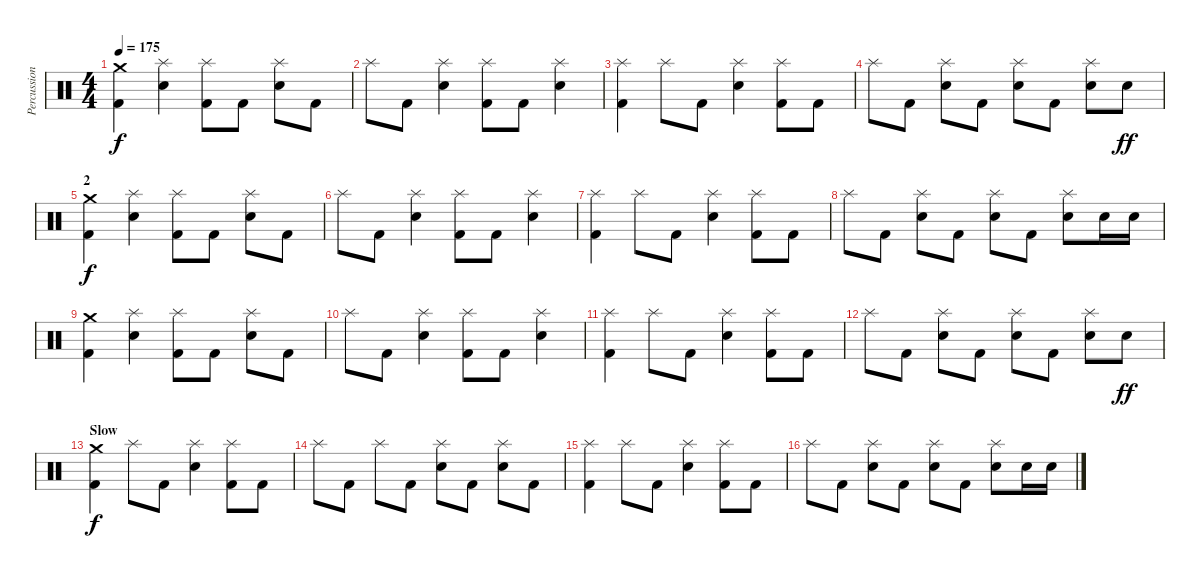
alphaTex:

\track ("Percussion" "Percussion") {instrument percussion}
\staff {score}
\articulation defaults
\ts (4 4)
\tempo 175
\clef neutral
\ks c
("Crash medium (hit)" "Kick (hit) 2").4{dy f} ("Splash (hit)" "Electric Snare (hit)").4 ("Splash (hit)" "Kick (hit) 2").8 "Kick (hit) 2".8 ("Splash (hit)" "Electric Snare (hit)").8 "Kick (hit) 2".8 |
"Splash (hit)".8 "Kick (hit) 2".8 ("Splash (hit)" "Electric Snare (hit)").4 ("Splash (hit)" "Kick (hit) 2").8 "Kick (hit) 2".8 ("Splash (hit)" "Electric Snare (hit)").4 |
("Splash (hit)" "Kick (hit) 2").4 "Splash (hit)".8 "Kick (hit) 2".8 ("Splash (hit)" "Electric Snare (hit)").4 ("Splash (hit)" "Kick (hit) 2").8 "Kick (hit) 2".8 |
"Splash (hit)".8 "Kick (hit) 2".8 ("Splash (hit)" "Electric Snare (hit)").8 "Kick (hit) 2".8 ("Splash (hit)" "Electric Snare (hit)").8 "Kick (hit) 2".8 ("Splash (hit)" "Electric Snare (hit)").8 "Electric Snare (hit)".8{dy ff} |
\section ("" "2")
("Crash medium (hit)" "Kick (hit) 2").4{dy f} ("Splash (hit)" "Electric Snare (hit)").4 ("Splash (hit)" "Kick (hit) 2").8 "Kick (hit) 2".8 ("Splash (hit)" "Electric Snare (hit)").8 "Kick (hit) 2".8 |
"Splash (hit)".8 "Kick (hit) 2".8 ("Splash (hit)" "Electric Snare (hit)").4 ("Splash (hit)" "Kick (hit) 2").8 "Kick (hit) 2".8 ("Splash (hit)" "Electric Snare (hit)").4 |
("Splash (hit)" "Kick (hit) 2").4 "Splash (hit)".8 "Kick (hit) 2".8 ("Splash (hit)" "Electric Snare (hit)").4 ("Splash (hit)" "Kick (hit) 2").8 "Kick (hit) 2".8 |
"Splash (hit)".8 "Kick (hit) 2".8 ("Splash (hit)" "Electric Snare (hit)").8 "Kick (hit) 2".8 ("Splash (hit)" "Electric Snare (hit)").8 "Kick (hit) 2".8 ("Splash (hit)" "Electric Snare (hit)").8 "Electric Snare (hit)".16 "Electric Snare (hit)".16 |
("Crash medium (hit)" "Kick (hit) 2").4 ("Splash (hit)" "Electric Snare (hit)").4 ("Splash (hit)" "Kick (hit) 2").8 "Kick (hit) 2".8 ("Splash (hit)" "Electric Snare (hit)").8 "Kick (hit) 2".8 |
"Splash (hit)".8 "Kick (hit) 2".8 ("Splash (hit)" "Electric Snare (hit)").4 ("Splash (hit)" "Kick (hit) 2").8 "Kick (hit) 2".8 ("Splash (hit)" "Electric Snare (hit)").4 |
("Splash (hit)" "Kick (hit) 2").4 "Splash (hit)".8 "Kick (hit) 2".8 ("Splash (hit)" "Electric Snare (hit)").4 ("Splash (hit)" "Kick (hit) 2").8 "Kick (hit) 2".8 |
"Splash (hit)".8 "Kick (hit) 2".8 ("Splash (hit)" "Electric Snare (hit)").8 "Kick (hit) 2".8 ("Splash (hit)" "Electric Snare (hit)").8 "Kick (hit) 2".8 ("Splash (hit)" "Electric Snare (hit)").8 "Electric Snare (hit)".8{dy ff} |
\section ("" "Slow")
("Crash medium (hit)" "Kick (hit) 2").4{dy f} "Splash (hit)".8 "Kick (hit) 2".8 ("Splash (hit)" "Electric Snare (hit)").4 ("Splash (hit)" "Kick (hit) 2").8 "Kick (hit) 2".8 |
"Splash (hit)".8 "Kick (hit) 2".8 "Splash (hit)".8 "Kick (hit) 2".8 ("Splash (hit)" "Electric Snare (hit)").8 "Kick (hit) 2".8 ("Splash (hit)" "Electric Snare (hit)").8 "Kick (hit) 2".8 |
("Splash (hit)" "Kick (hit) 2").4 "Splash (hit)".8 "Kick (hit) 2".8 ("Splash (hit)" "Electric Snare (hit)").4 ("Splash (hit)" "Kick (hit) 2").8 "Kick (hit) 2".8 |
"Splash (hit)".8 "Kick (hit) 2".8 ("Splash (hit)" "Electric Snare (hit)").8 "Kick (hit) 2".8 ("Splash (hit)" "Electric Snare (hit)").8 "Kick (hit) 2".8 ("Splash (hit)" "Electric Snare (hit)").8 "Electric Snare (hit)".16 "Electric Snare (hit)".16
